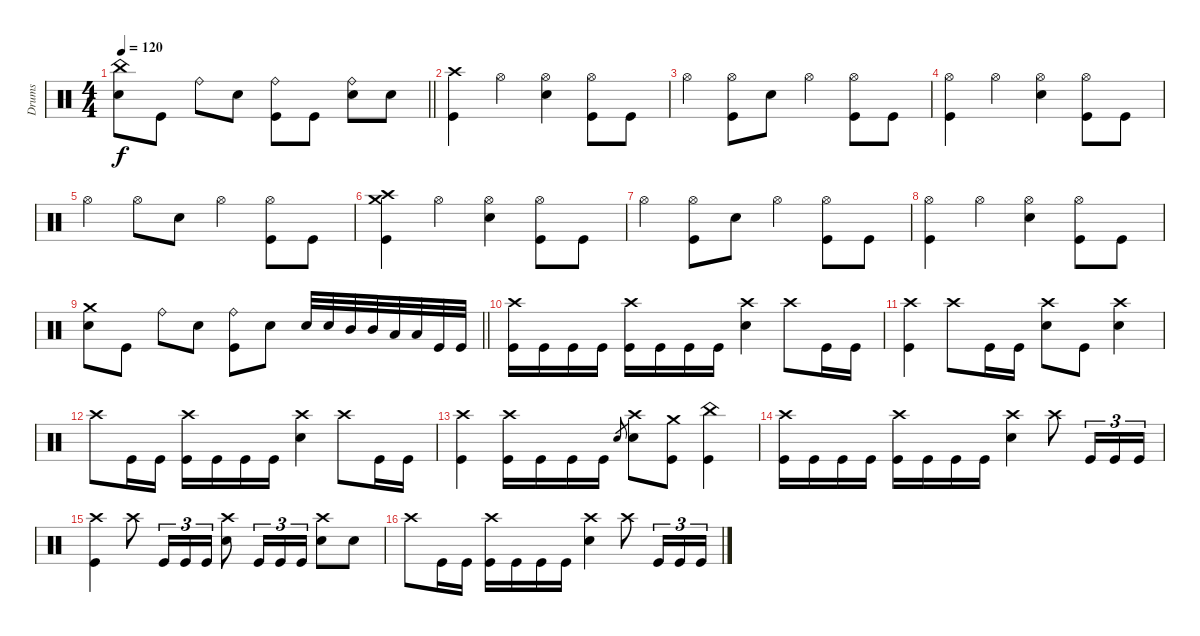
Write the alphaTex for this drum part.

\track ("Drums" "Drums") {instrument percussion}
\staff
\articulation defaults
\ts (4 4)
\tempo 120
\clef neutral
\barLineRight lightlight
\ks c
("China (hit)" "Electric Snare (hit)").8{dy f} "Kick (hit)".8 "Ride (bell)".8 "Electric Snare (hit)".8 ("Ride (bell)" "Kick (hit)").8 "Kick (hit)".8 ("Ride (bell)" "Electric Snare (hit)").8 "Electric Snare (hit)".8 |
("Crash high (hit)" "Kick (hit)").4 "Hi-Hat (open)".4 ("Hi-Hat (open)" "Electric Snare (hit)").4 ("Hi-Hat (open)" "Kick (hit)").8 "Kick (hit)".8 |
"Hi-Hat (open)".4 ("Hi-Hat (open)" "Kick (hit)").8 "Electric Snare (hit)".8 "Hi-Hat (open)".4 ("Hi-Hat (open)" "Kick (hit)").8 "Kick (hit)".8 |
("Hi-Hat (open)" "Kick (hit)").4 "Hi-Hat (open)".4 ("Hi-Hat (open)" "Electric Snare (hit)").4 ("Hi-Hat (open)" "Kick (hit)").8 "Kick (hit)".8 |
"Hi-Hat (open)".4 "Hi-Hat (open)".8 "Electric Snare (hit)".8 "Hi-Hat (open)".4 ("Hi-Hat (open)" "Kick (hit)").8 "Kick (hit)".8 |
("Crash high (hit)" "Crash medium (hit)" "Kick (hit)").4 "Hi-Hat (open)".4 ("Hi-Hat (open)" "Electric Snare (hit)").4 ("Hi-Hat (open)" "Kick (hit)").8 "Kick (hit)".8 |
"Hi-Hat (open)".4 ("Hi-Hat (open)" "Kick (hit)").8 "Electric Snare (hit)".8 "Hi-Hat (open)".4 ("Hi-Hat (open)" "Kick (hit)").8 "Kick (hit)".8 |
("Hi-Hat (open)" "Kick (hit)").4 "Hi-Hat (open)".4 ("Hi-Hat (open)" "Electric Snare (hit)").4 ("Hi-Hat (open)" "Kick (hit)").8 "Kick (hit)".8 |
\barLineRight lightlight
("Crash medium (hit)" "Electric Snare (hit)").8 "Kick (hit)".8 "Ride (bell)".8 "Electric Snare (hit)".8 ("Ride (bell)" "Kick (hit)").8 "Electric Snare (hit)".8 "Electric Snare (hit)".32 "Electric Snare (hit)".32 "Mid Tom (hit)".32 "Mid Tom (hit)".32 "Low Tom (hit)".32 "Low Tom (hit)".32 "Kick (hit)".32 "Kick (hit)".32 |
\section ("" "")
("Crash high (hit)" "Kick (hit)").16 "Kick (hit)".16 "Kick (hit)".16 "Kick (hit)".16 ("Crash high (hit)" "Kick (hit)").16 "Kick (hit)".16 "Kick (hit)".16 "Kick (hit)".16 ("Crash high (hit)" "Electric Snare (hit)").4 "Crash high (hit)".8 "Kick (hit)".16 "Kick (hit)".16 |
("Crash high (hit)" "Kick (hit)").4 "Crash high (hit)".8 "Kick (hit)".16 "Kick (hit)".16 ("Crash high (hit)" "Electric Snare (hit)").8 "Kick (hit)".8 ("Crash high (hit)" "Electric Snare (hit)").4 |
"Crash high (hit)".8 "Kick (hit)".16 "Kick (hit)".16 ("Crash high (hit)" "Kick (hit)").16 "Kick (hit)".16 "Kick (hit)".16 "Kick (hit)".16 ("Crash high (hit)" "Electric Snare (hit)").4 "Crash high (hit)".8 "Kick (hit)".16 "Kick (hit)".16 |
("Crash high (hit)" "Kick (hit)").4 ("Crash high (hit)" "Kick (hit)").16 "Kick (hit)".16 "Kick (hit)".16 "Kick (hit)".16 "Electric Snare (hit)".8{gr} ("Crash high (hit)" "Electric Snare (hit)").8 ("Crash medium (hit)" "Kick (hit)").8 ("China (hit)" "Kick (hit)").4 |
("Crash high (hit)" "Kick (hit)").16 "Kick (hit)".16 "Kick (hit)".16 "Kick (hit)".16 ("Crash high (hit)" "Kick (hit)").16 "Kick (hit)".16 "Kick (hit)".16 "Kick (hit)".16 ("Crash high (hit)" "Electric Snare (hit)").4 "Crash high (hit)".8 "Kick (hit)".16{tu (3 2)} "Kick (hit)".16{tu (3 2)} "Kick (hit)".16{tu (3 2)} |
("Crash high (hit)" "Kick (hit)").4 "Crash high (hit)".8 "Kick (hit)".16{tu (3 2)} "Kick (hit)".16{tu (3 2)} "Kick (hit)".16{tu (3 2)} ("Crash high (hit)" "Electric Snare (hit)").8 "Kick (hit)".16{tu (3 2)} "Kick (hit)".16{tu (3 2)} "Kick (hit)".16{tu (3 2)} ("Crash high (hit)" "Electric Snare (hit)").8 "Electric Snare (hit)".8 |
"Crash high (hit)".8 "Kick (hit)".16 "Kick (hit)".16 ("Crash high (hit)" "Kick (hit)").16 "Kick (hit)".16 "Kick (hit)".16 "Kick (hit)".16 ("Crash high (hit)" "Electric Snare (hit)").4 "Crash high (hit)".8 "Kick (hit)".16{tu (3 2)} "Kick (hit)".16{tu (3 2)} "Kick (hit)".16{tu (3 2)}
